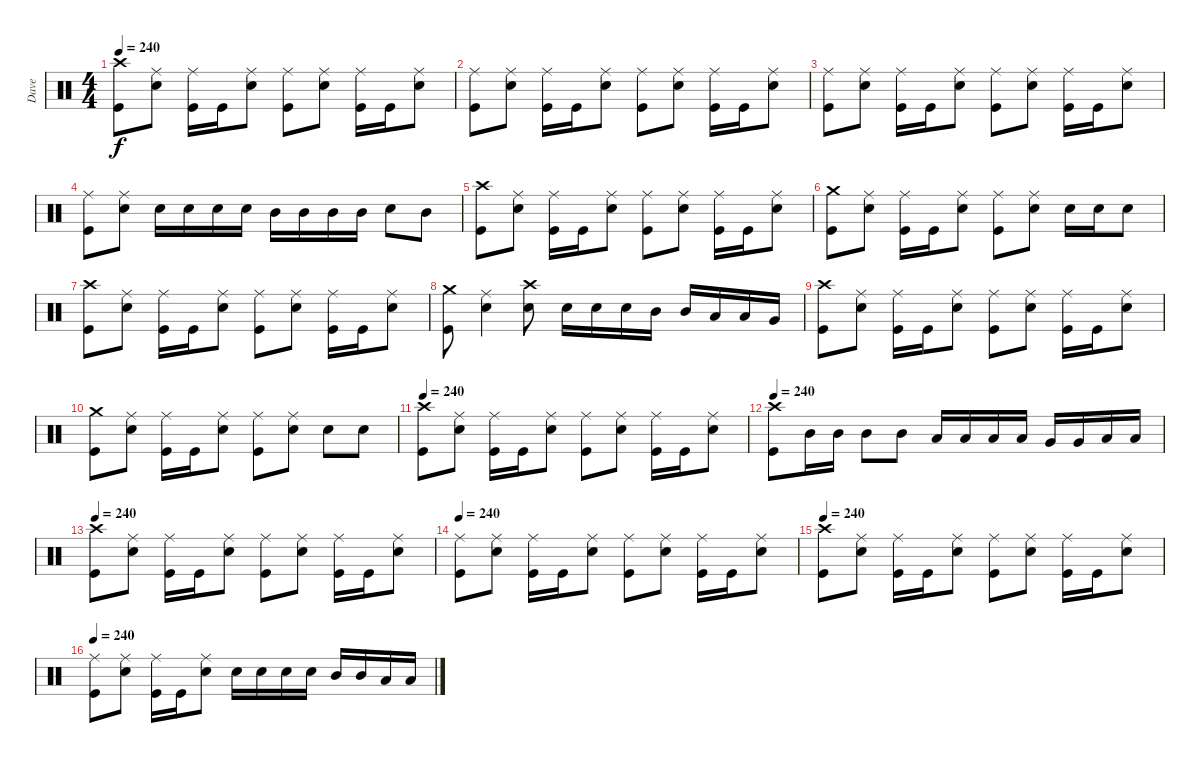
\track ("Dave" "Dave") {instrument percussion}
\staff {score}
\articulation defaults
\ts (4 4)
\tempo 240
\clef neutral
\ks c
("Crash high (hit)" "Kick (hit)").8{dy f} ("Ride (middle)" "Snare (hit) 2").8 ("Ride (middle)" "Kick (hit)").16 "Kick (hit)".16 ("Ride (middle)" "Snare (hit) 2").8 ("Ride (middle)" "Kick (hit)").8 ("Ride (middle)" "Snare (hit) 2").8 ("Ride (middle)" "Kick (hit)").16 "Kick (hit)".16 ("Ride (middle)" "Snare (hit) 2").8 |
("Ride (middle)" "Kick (hit)").8 ("Ride (middle)" "Snare (hit) 2").8 ("Ride (middle)" "Kick (hit)").16 "Kick (hit)".16 ("Ride (middle)" "Snare (hit) 2").8 ("Ride (middle)" "Kick (hit)").8 ("Ride (middle)" "Snare (hit) 2").8 ("Ride (middle)" "Kick (hit)").16 "Kick (hit)".16 ("Ride (middle)" "Snare (hit) 2").8 |
("Ride (middle)" "Kick (hit)").8 ("Ride (middle)" "Snare (hit) 2").8 ("Ride (middle)" "Kick (hit)").16 "Kick (hit)".16 ("Ride (middle)" "Snare (hit) 2").8 ("Ride (middle)" "Kick (hit)").8 ("Ride (middle)" "Snare (hit) 2").8 ("Ride (middle)" "Kick (hit)").16 "Kick (hit)".16 ("Ride (middle)" "Snare (hit) 2").8 |
("Ride (middle)" "Kick (hit)").8 ("Ride (middle)" "Snare (hit) 2").8 "Snare (hit) 2".16 "Snare (hit) 2".16 "Snare (hit) 2".16 "Snare (hit) 2".16 "Mid Tom (hit)".16 "Mid Tom (hit)".16 "Mid Tom (hit)".16 "Mid Tom (hit)".16 "Snare (hit) 2".8 "Mid Tom (hit)".8 |
("Crash high (hit)" "Kick (hit)").8 ("Ride (middle)" "Snare (hit) 2").8 ("Ride (middle)" "Kick (hit)").16 "Kick (hit)".16 ("Ride (middle)" "Snare (hit) 2").8 ("Ride (middle)" "Kick (hit)").8 ("Ride (middle)" "Snare (hit) 2").8 ("Ride (middle)" "Kick (hit)").16 "Kick (hit)".16 ("Ride (middle)" "Snare (hit) 2").8 |
("Crash medium (hit)" "Kick (hit)").8 ("Ride (middle)" "Snare (hit) 2").8 ("Ride (middle)" "Kick (hit)").16 "Kick (hit)".16 ("Ride (middle)" "Snare (hit) 2").8 ("Ride (middle)" "Kick (hit)").8 ("Ride (middle)" "Snare (hit) 2").8 "Snare (hit) 2".16 "Snare (hit) 2".16 "Snare (hit) 2".8 |
("Crash high (hit)" "Kick (hit)").8 ("Ride (middle)" "Snare (hit) 2").8 ("Ride (middle)" "Kick (hit)").16 "Kick (hit)".16 ("Ride (middle)" "Snare (hit) 2").8 ("Ride (middle)" "Kick (hit)").8 ("Ride (middle)" "Snare (hit) 2").8 ("Ride (middle)" "Kick (hit)").16 "Kick (hit)".16 ("Ride (middle)" "Snare (hit) 2").8 |
("Crash medium (hit)" "Kick (hit)").8 ("Ride (middle)" "Snare (hit) 2").4 ("Crash high (hit)" "Snare (hit) 2").8 "Snare (hit) 2".16 "Snare (hit) 2".16 "Snare (hit) 2".16 "Mid Tom (hit)".16 "Mid Tom (hit)".16 "Low Tom (hit)".16 "Low Tom (hit)".16 "Very Low Tom (hit)".16 |
("Crash high (hit)" "Kick (hit)").8 ("Ride (middle)" "Snare (hit) 2").8 ("Ride (middle)" "Kick (hit)").16 "Kick (hit)".16 ("Ride (middle)" "Snare (hit) 2").8 ("Ride (middle)" "Kick (hit)").8 ("Ride (middle)" "Snare (hit) 2").8 ("Ride (middle)" "Kick (hit)").16 "Kick (hit)".16 ("Ride (middle)" "Snare (hit) 2").8 |
("Crash medium (hit)" "Kick (hit)").8 ("Ride (middle)" "Snare (hit) 2").8 ("Ride (middle)" "Kick (hit)").16 "Kick (hit)".16 ("Ride (middle)" "Snare (hit) 2").8 ("Ride (middle)" "Kick (hit)").8 ("Ride (middle)" "Snare (hit) 2").8 "Snare (hit) 2".8 "Snare (hit) 2".8 |
\tempo 240
("Crash high (hit)" "Kick (hit)").8 ("Ride (middle)" "Snare (hit) 2").8 ("Ride (middle)" "Kick (hit)").16 "Kick (hit)".16 ("Ride (middle)" "Snare (hit) 2").8 ("Ride (middle)" "Kick (hit)").8 ("Ride (middle)" "Snare (hit) 2").8 ("Ride (middle)" "Kick (hit)").16 "Kick (hit)".16 ("Ride (middle)" "Snare (hit) 2").8 |
\tempo 240
("Crash high (hit)" "Kick (hit)").8 "Mid Tom (hit)".16 "Mid Tom (hit)".16 "Mid Tom (hit)".8 "Mid Tom (hit)".8 "Low Tom (hit)".16 "Low Tom (hit)".16 "Low Tom (hit)".16 "Low Tom (hit)".16 "Very Low Tom (hit)".16 "Very Low Tom (hit)".16 "Low Floor Tom (hit)".16 "Low Floor Tom (hit)".16 |
\tempo 240
("Crash high (hit)" "Kick (hit)").8 ("Ride (middle)" "Snare (hit) 2").8 ("Ride (middle)" "Kick (hit)").16 "Kick (hit)".16 ("Ride (middle)" "Snare (hit) 2").8 ("Ride (middle)" "Kick (hit)").8 ("Ride (middle)" "Snare (hit) 2").8 ("Ride (middle)" "Kick (hit)").16 "Kick (hit)".16 ("Ride (middle)" "Snare (hit) 2").8 |
\tempo 240
("Ride (middle)" "Kick (hit)").8 ("Ride (middle)" "Snare (hit) 2").8 ("Ride (middle)" "Kick (hit)").16 "Kick (hit)".16 ("Ride (middle)" "Snare (hit) 2").8 ("Ride (middle)" "Kick (hit)").8 ("Ride (middle)" "Snare (hit) 2").8 ("Ride (middle)" "Kick (hit)").16 "Kick (hit)".16 ("Ride (middle)" "Snare (hit) 2").8 |
\tempo 240
("Crash high (hit)" "Kick (hit)").8 ("Ride (middle)" "Snare (hit) 2").8 ("Ride (middle)" "Kick (hit)").16 "Kick (hit)".16 ("Ride (middle)" "Snare (hit) 2").8 ("Ride (middle)" "Kick (hit)").8 ("Ride (middle)" "Snare (hit) 2").8 ("Ride (middle)" "Kick (hit)").16 "Kick (hit)".16 ("Ride (middle)" "Snare (hit) 2").8 |
\tempo 240
("Ride (middle)" "Kick (hit)").8 ("Ride (middle)" "Snare (hit) 2").8 ("Ride (middle)" "Kick (hit)").16 "Kick (hit)".16 ("Ride (middle)" "Snare (hit) 2").8 "Snare (hit) 2".16 "Snare (hit) 2".16 "Snare (hit) 2".16 "Snare (hit) 2".16 "Mid Tom (hit)".16 "Mid Tom (hit)".16 "Low Tom (hit)".16 "Low Tom (hit)".16
